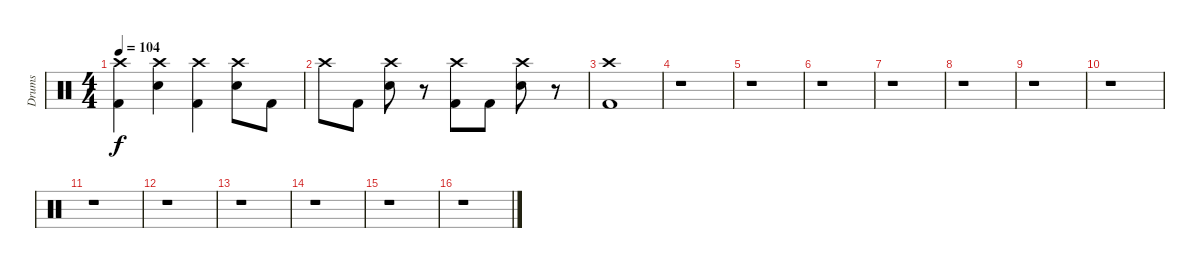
\track ("Drums" "Drums") {instrument percussion}
\staff {score}
\articulation defaults
\ts (4 4)
\tempo 104
\clef neutral
\ks c
("Crash high (hit)" "Kick (hit) 2").4{dy f} ("Crash high (hit)" "Electric Snare (hit)").4 ("Crash high (hit)" "Kick (hit) 2").4 ("Crash high (hit)" "Electric Snare (hit)").8 "Kick (hit) 2".8 |
"Crash high (hit)".8 "Kick (hit) 2".8 ("Crash high (hit)" "Electric Snare (hit)").8 r.8 ("Crash high (hit)" "Kick (hit) 2").8 "Kick (hit) 2".8 ("Crash high (hit)" "Electric Snare (hit)").8 r.8 |
("Crash high (hit)" "Kick (hit) 2").1 |
r.1 |
r.1 |
r.1 |
r.1 |
r.1 |
r.1 |
r.1 |
r.1 |
r.1 |
r.1 |
r.1 |
r.1 |
r.1
